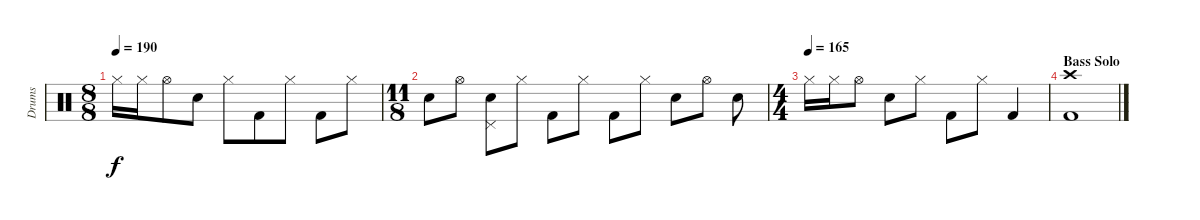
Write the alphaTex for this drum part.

\track ("Drums" "Drums") {instrument percussion}
\staff {score}
\articulation defaults
\ts (8 8)
\tempo 190
\clef neutral
\ks c "Hi-Hat (closed)".16{dy f} "Hi-Hat (closed)".16 "Hi-Hat (open)".8 "Snare (hit) 2".8 "Hi-Hat (closed)".8 "Kick (hit) 2".8 "Hi-Hat (closed)".8 "Kick (hit) 2".8 "Hi-Hat (closed)".8
|
\ts (11 8)
"Snare (hit) 2".8 "Hi-Hat (open)".8 ("Pedal Hi-Hat (hit)" "Snare (hit) 2").8 "Hi-Hat (closed)".8 "Kick (hit) 2".8 "Hi-Hat (closed)".8 "Kick (hit) 2".8 "Hi-Hat (closed)".8 "Snare (hit) 2".8 "Hi-Hat (open)".8 "Snare (hit) 2".8 |
\ts (4 4)
\tempo (165)
"Hi-Hat (closed)".16 "Hi-Hat (closed)".16 "Hi-Hat (open)".8 "Snare (hit) 2".8 "Hi-Hat (closed)".8 "Kick (hit) 2".8 "Hi-Hat (closed)".8 "Kick (hit) 2".4 |
\section ("" "Bass Solo")
("Crash high (hit)" "Kick (hit) 2").1
